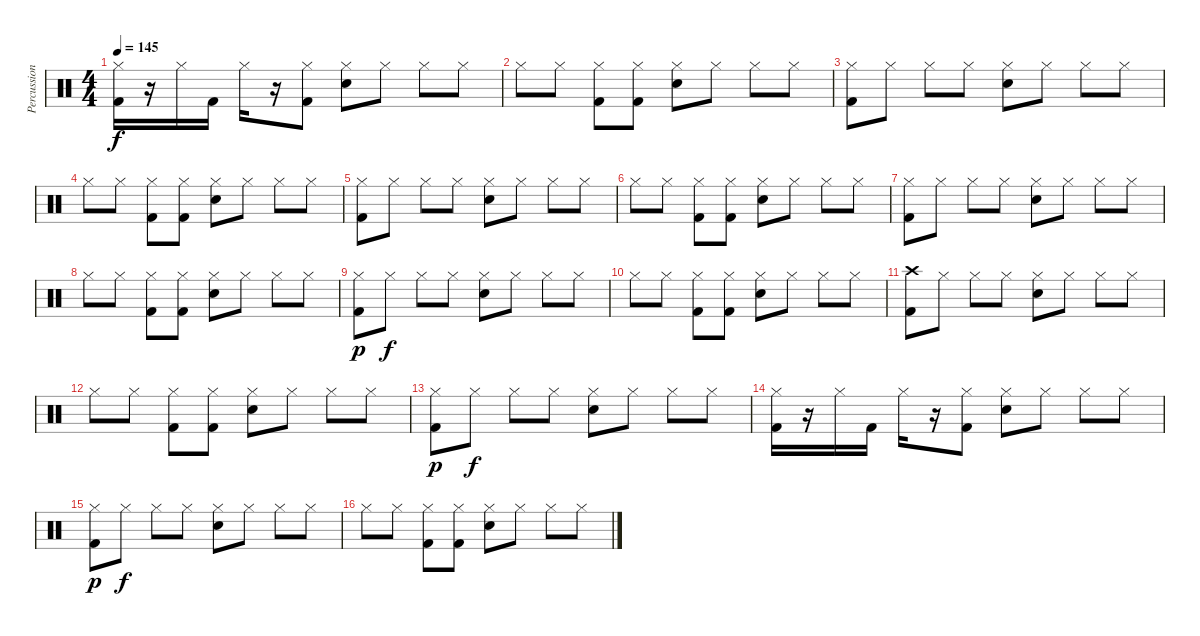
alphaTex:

\track ("Percussion" "Percussion") {instrument percussion}
\staff {score}
\articulation defaults
\ts (4 4)
\tempo 145
\clef neutral
\ks c
("Hi-Hat (closed)" "Kick (hit) 2").16{dy f} r.16 "Hi-Hat (closed)".16 "Kick (hit) 2".16 "Hi-Hat (closed)".16 r.16 ("Hi-Hat (closed)" "Kick (hit) 2").8 ("Hi-Hat (closed)" "Electric Snare (hit)").8 "Hi-Hat (closed)".8 "Hi-Hat (closed)".8 "Hi-Hat (closed)".8 |
"Hi-Hat (closed)".8 "Hi-Hat (closed)".8 ("Hi-Hat (closed)" "Kick (hit) 2").8 ("Hi-Hat (closed)" "Kick (hit) 2").8 ("Hi-Hat (closed)" "Electric Snare (hit)").8 "Hi-Hat (closed)".8 "Hi-Hat (closed)".8 "Hi-Hat (closed)".8 |
("Hi-Hat (closed)" "Kick (hit) 2").8 "Hi-Hat (closed)".8 "Hi-Hat (closed)".8 "Hi-Hat (closed)".8 ("Hi-Hat (closed)" "Electric Snare (hit)").8 "Hi-Hat (closed)".8 "Hi-Hat (closed)".8 "Hi-Hat (closed)".8 |
"Hi-Hat (closed)".8 "Hi-Hat (closed)".8 ("Hi-Hat (closed)" "Kick (hit) 2").8 ("Hi-Hat (closed)" "Kick (hit) 2").8 ("Hi-Hat (closed)" "Electric Snare (hit)").8 "Hi-Hat (closed)".8 "Hi-Hat (closed)".8 "Hi-Hat (closed)".8 |
("Hi-Hat (closed)" "Kick (hit) 2").8 "Hi-Hat (closed)".8 "Hi-Hat (closed)".8 "Hi-Hat (closed)".8 ("Hi-Hat (closed)" "Electric Snare (hit)").8 "Hi-Hat (closed)".8 "Hi-Hat (closed)".8 "Hi-Hat (closed)".8 |
"Hi-Hat (closed)".8 "Hi-Hat (closed)".8 ("Hi-Hat (closed)" "Kick (hit) 2").8 ("Hi-Hat (closed)" "Kick (hit) 2").8 ("Hi-Hat (closed)" "Electric Snare (hit)").8 "Hi-Hat (closed)".8 "Hi-Hat (closed)".8 "Hi-Hat (closed)".8 |
("Hi-Hat (closed)" "Kick (hit) 2").8 "Hi-Hat (closed)".8 "Hi-Hat (closed)".8 "Hi-Hat (closed)".8 ("Hi-Hat (closed)" "Electric Snare (hit)").8 "Hi-Hat (closed)".8 "Hi-Hat (closed)".8 "Hi-Hat (closed)".8 |
"Hi-Hat (closed)".8 "Hi-Hat (closed)".8 ("Hi-Hat (closed)" "Kick (hit) 2").8 ("Hi-Hat (closed)" "Kick (hit) 2").8 ("Hi-Hat (closed)" "Electric Snare (hit)").8 "Hi-Hat (closed)".8 "Hi-Hat (closed)".8 "Hi-Hat (closed)".8 |
("Hi-Hat (closed)" "Kick (hit) 2").8{dy p} "Hi-Hat (closed)".8{dy f} "Hi-Hat (closed)".8 "Hi-Hat (closed)".8 ("Hi-Hat (closed)" "Electric Snare (hit)").8 "Hi-Hat (closed)".8 "Hi-Hat (closed)".8 "Hi-Hat (closed)".8 |
"Hi-Hat (closed)".8 "Hi-Hat (closed)".8 ("Hi-Hat (closed)" "Kick (hit) 2").8 ("Hi-Hat (closed)" "Kick (hit) 2").8 ("Hi-Hat (closed)" "Electric Snare (hit)").8 "Hi-Hat (closed)".8 "Hi-Hat (closed)".8 "Hi-Hat (closed)".8 |
("Crash high (hit)" "Kick (hit) 2").8 "Hi-Hat (closed)".8 "Hi-Hat (closed)".8 "Hi-Hat (closed)".8 ("Hi-Hat (closed)" "Electric Snare (hit)").8 "Hi-Hat (closed)".8 "Hi-Hat (closed)".8 "Hi-Hat (closed)".8 |
"Hi-Hat (closed)".8 "Hi-Hat (closed)".8 ("Hi-Hat (closed)" "Kick (hit) 2").8 ("Hi-Hat (closed)" "Kick (hit) 2").8 ("Hi-Hat (closed)" "Electric Snare (hit)").8 "Hi-Hat (closed)".8 "Hi-Hat (closed)".8 "Hi-Hat (closed)".8 |
("Hi-Hat (closed)" "Kick (hit) 2").8{dy p} "Hi-Hat (closed)".8{dy f} "Hi-Hat (closed)".8 "Hi-Hat (closed)".8 ("Hi-Hat (closed)" "Electric Snare (hit)").8 "Hi-Hat (closed)".8 "Hi-Hat (closed)".8 "Hi-Hat (closed)".8 |
("Hi-Hat (closed)" "Kick (hit) 2").16 r.16 "Hi-Hat (closed)".16 "Kick (hit) 2".16 "Hi-Hat (closed)".16 r.16 ("Hi-Hat (closed)" "Kick (hit) 2").8 ("Hi-Hat (closed)" "Electric Snare (hit)").8 "Hi-Hat (closed)".8 "Hi-Hat (closed)".8 "Hi-Hat (closed)".8 |
("Hi-Hat (closed)" "Kick (hit) 2").8{dy p volume 2} "Hi-Hat (closed)".8{dy f} "Hi-Hat (closed)".8 "Hi-Hat (closed)".8 ("Hi-Hat (closed)" "Electric Snare (hit)").8 "Hi-Hat (closed)".8 "Hi-Hat (closed)".8 "Hi-Hat (closed)".8 |
"Hi-Hat (closed)".8 "Hi-Hat (closed)".8 ("Hi-Hat (closed)" "Kick (hit) 2").8 ("Hi-Hat (closed)" "Kick (hit) 2").8 ("Hi-Hat (closed)" "Electric Snare (hit)").8 "Hi-Hat (closed)".8 "Hi-Hat (closed)".8 "Hi-Hat (closed)".8
